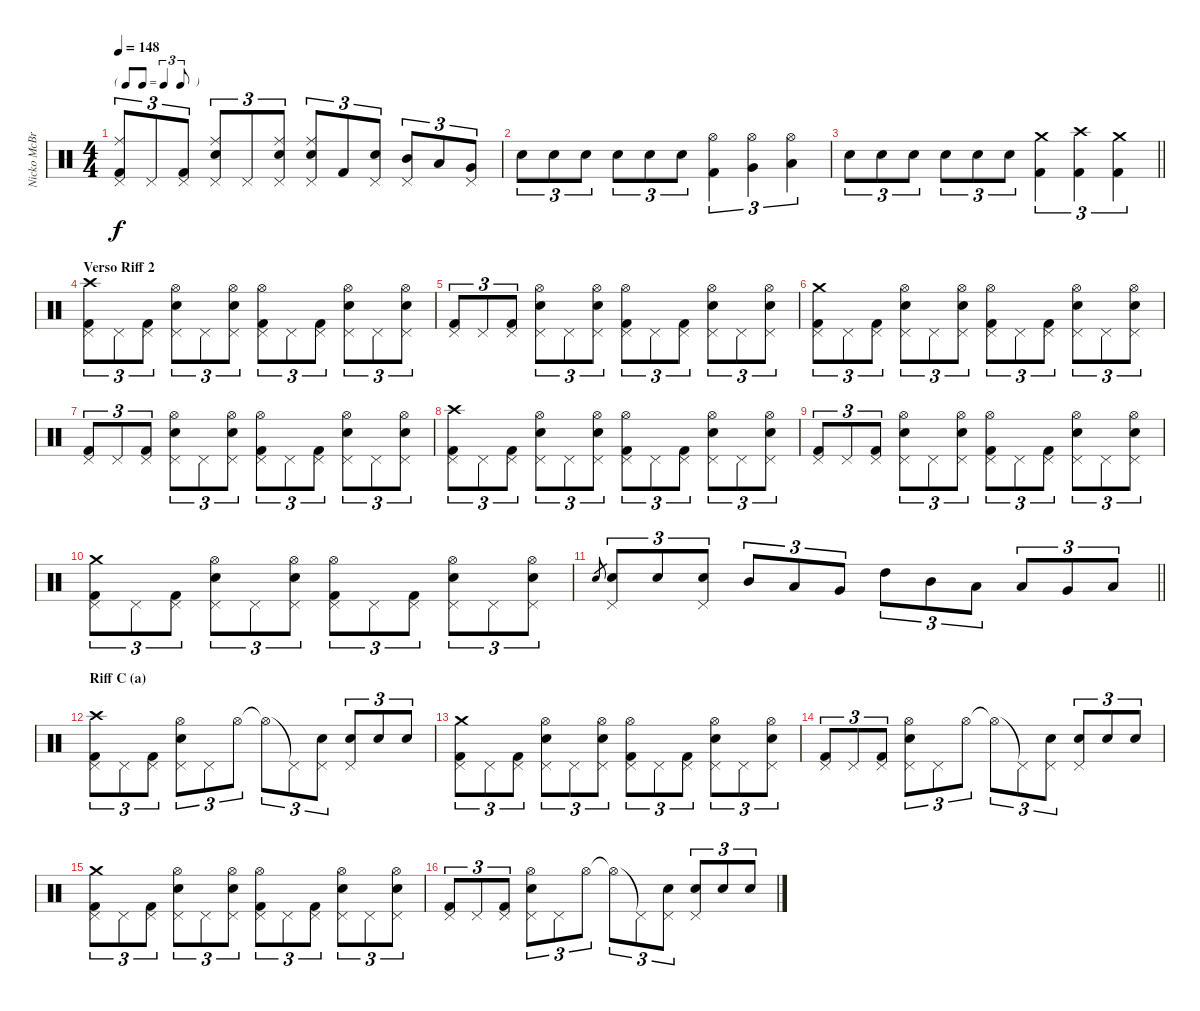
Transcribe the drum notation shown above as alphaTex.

\track ("Nicko McBrain" "Nicko McBr") {instrument percussion}
\staff {score}
\articulation defaults
\ts (4 4)
\tf triplet8th
\tempo 148
\clef neutral
\ks c
("Kick (hit) 2" "Pedal Hi-Hat (hit)" "Ride (middle)").8{tu (3 2) dy f} "Pedal Hi-Hat (hit)".8{tu (3 2)} ("Kick (hit) 2" "Pedal Hi-Hat (hit)").8{tu (3 2)} ("Snare (hit) 2" "Pedal Hi-Hat (hit)" "Ride (middle)").8{tu (3 2)} "Pedal Hi-Hat (hit)".8{tu (3 2)} ("Snare (hit) 2" "Pedal Hi-Hat (hit)" "Ride (middle)").8{tu (3 2)} ("Snare (hit) 2" "Pedal Hi-Hat (hit)" "Ride (middle)").8{tu (3 2)} "Kick (hit) 2".8{tu (3 2)} ("Snare (hit) 2" "Pedal Hi-Hat (hit)").8{tu (3 2)} ("Mid Tom (hit)" "Pedal Hi-Hat (hit)").8{tu (3 2)} "Low Tom (hit)".8{tu (3 2)} ("Very Low Tom (hit)" "Pedal Hi-Hat (hit)").8{tu (3 2)} |
"Snare (hit) 2".8{tu (3 2)} "Snare (hit) 2".8{tu (3 2)} "Snare (hit) 2".8{tu (3 2)} "Snare (hit) 2".8{tu (3 2)} "Snare (hit) 2".8{tu (3 2)} "Snare (hit) 2".8{tu (3 2)} ("Kick (hit) 2" "Hi-Hat (open)").4{tu (3 2)} ("Very Low Tom (hit)" "Hi-Hat (open)").4{tu (3 2)} ("Low Floor Tom (hit)" "Hi-Hat (open)").4{tu (3 2)} |
\barLineRight lightlight "Snare (hit) 2".8{tu (3 2)} "Snare (hit) 2".8{tu (3 2)} "Snare (hit) 2".8{tu (3 2)} "Snare (hit) 2".8{tu (3 2)} "Snare (hit) 2".8{tu (3 2)} "Snare (hit) 2".8{tu (3 2)}
("Kick (hit) 2" "Crash medium (hit)").4{tu (3 2)} ("Kick (hit) 2" "Crash high (hit)").4{tu (3 2)} ("Kick (hit) 2" "Crash medium (hit)").4{tu (3 2)} |
\section ("" "Verso Riff 2")
("Kick (hit) 2" "Pedal Hi-Hat (hit)" "Crash high (hit)").8{tu (3 2)} "Pedal Hi-Hat (hit)".8{tu (3 2)} ("Kick (hit) 2" "Pedal Hi-Hat (hit)").8{tu (3 2)} ("Snare (hit) 2" "Pedal Hi-Hat (hit)" "Hi-Hat (open)").8{tu (3 2)} "Pedal Hi-Hat (hit)".8{tu (3 2)} ("Snare (hit) 2" "Pedal Hi-Hat (hit)" "Hi-Hat (open)").8{tu (3 2)} ("Kick (hit) 2" "Pedal Hi-Hat (hit)" "Hi-Hat (open)").8{tu (3 2)} "Pedal Hi-Hat (hit)".8{tu (3 2)} ("Kick (hit) 2" "Pedal Hi-Hat (hit)").8{tu (3 2)} ("Snare (hit) 2" "Pedal Hi-Hat (hit)" "Hi-Hat (open)").8{tu (3 2)} "Pedal Hi-Hat (hit)".8{tu (3 2)} ("Snare (hit) 2" "Pedal Hi-Hat (hit)" "Hi-Hat (open)").8{tu (3 2)} |
("Kick (hit) 2" "Pedal Hi-Hat (hit)").8{tu (3 2)} "Pedal Hi-Hat (hit)".8{tu (3 2)} ("Kick (hit) 2" "Pedal Hi-Hat (hit)").8{tu (3 2)} ("Snare (hit) 2" "Pedal Hi-Hat (hit)" "Hi-Hat (open)").8{tu (3 2)} "Pedal Hi-Hat (hit)".8{tu (3 2)} ("Snare (hit) 2" "Pedal Hi-Hat (hit)" "Hi-Hat (open)").8{tu (3 2)} ("Kick (hit) 2" "Pedal Hi-Hat (hit)" "Hi-Hat (open)").8{tu (3 2)} "Pedal Hi-Hat (hit)".8{tu (3 2)} ("Kick (hit) 2" "Pedal Hi-Hat (hit)").8{tu (3 2)} ("Snare (hit) 2" "Pedal Hi-Hat (hit)" "Hi-Hat (open)").8{tu (3 2)} "Pedal Hi-Hat (hit)".8{tu (3 2)} ("Snare (hit) 2" "Pedal Hi-Hat (hit)" "Hi-Hat (open)").8{tu (3 2)} |
("Kick (hit) 2" "Pedal Hi-Hat (hit)" "Crash medium (hit)").8{tu (3 2)} "Pedal Hi-Hat (hit)".8{tu (3 2)} ("Kick (hit) 2" "Pedal Hi-Hat (hit)").8{tu (3 2)} ("Snare (hit) 2" "Pedal Hi-Hat (hit)" "Hi-Hat (open)").8{tu (3 2)} "Pedal Hi-Hat (hit)".8{tu (3 2)} ("Snare (hit) 2" "Pedal Hi-Hat (hit)" "Hi-Hat (open)").8{tu (3 2)} ("Kick (hit) 2" "Pedal Hi-Hat (hit)" "Hi-Hat (open)").8{tu (3 2)} "Pedal Hi-Hat (hit)".8{tu (3 2)} ("Kick (hit) 2" "Pedal Hi-Hat (hit)").8{tu (3 2)} ("Snare (hit) 2" "Pedal Hi-Hat (hit)" "Hi-Hat (open)").8{tu (3 2)} "Pedal Hi-Hat (hit)".8{tu (3 2)} ("Snare (hit) 2" "Pedal Hi-Hat (hit)" "Hi-Hat (open)").8{tu (3 2)} |
("Kick (hit) 2" "Pedal Hi-Hat (hit)").8{tu (3 2)} "Pedal Hi-Hat (hit)".8{tu (3 2)} ("Kick (hit) 2" "Pedal Hi-Hat (hit)").8{tu (3 2)} ("Snare (hit) 2" "Pedal Hi-Hat (hit)" "Hi-Hat (open)").8{tu (3 2)} "Pedal Hi-Hat (hit)".8{tu (3 2)} ("Snare (hit) 2" "Pedal Hi-Hat (hit)" "Hi-Hat (open)").8{tu (3 2)} ("Kick (hit) 2" "Pedal Hi-Hat (hit)" "Hi-Hat (open)").8{tu (3 2)} "Pedal Hi-Hat (hit)".8{tu (3 2)} ("Kick (hit) 2" "Pedal Hi-Hat (hit)").8{tu (3 2)} ("Snare (hit) 2" "Pedal Hi-Hat (hit)" "Hi-Hat (open)").8{tu (3 2)} "Pedal Hi-Hat (hit)".8{tu (3 2)} ("Snare (hit) 2" "Pedal Hi-Hat (hit)" "Hi-Hat (open)").8{tu (3 2)} |
("Kick (hit) 2" "Pedal Hi-Hat (hit)" "Crash high (hit)").8{tu (3 2)} "Pedal Hi-Hat (hit)".8{tu (3 2)} ("Kick (hit) 2" "Pedal Hi-Hat (hit)").8{tu (3 2)} ("Snare (hit) 2" "Pedal Hi-Hat (hit)" "Hi-Hat (open)").8{tu (3 2)} "Pedal Hi-Hat (hit)".8{tu (3 2)} ("Snare (hit) 2" "Pedal Hi-Hat (hit)" "Hi-Hat (open)").8{tu (3 2)} ("Kick (hit) 2" "Pedal Hi-Hat (hit)" "Hi-Hat (open)").8{tu (3 2)} "Pedal Hi-Hat (hit)".8{tu (3 2)} ("Kick (hit) 2" "Pedal Hi-Hat (hit)").8{tu (3 2)} ("Snare (hit) 2" "Pedal Hi-Hat (hit)" "Hi-Hat (open)").8{tu (3 2)} "Pedal Hi-Hat (hit)".8{tu (3 2)} ("Snare (hit) 2" "Pedal Hi-Hat (hit)" "Hi-Hat (open)").8{tu (3 2)} |
("Kick (hit) 2" "Pedal Hi-Hat (hit)").8{tu (3 2)} "Pedal Hi-Hat (hit)".8{tu (3 2)} ("Kick (hit) 2" "Pedal Hi-Hat (hit)").8{tu (3 2)} ("Snare (hit) 2" "Pedal Hi-Hat (hit)" "Hi-Hat (open)").8{tu (3 2)} "Pedal Hi-Hat (hit)".8{tu (3 2)} ("Snare (hit) 2" "Pedal Hi-Hat (hit)" "Hi-Hat (open)").8{tu (3 2)} ("Kick (hit) 2" "Pedal Hi-Hat (hit)" "Hi-Hat (open)").8{tu (3 2)} "Pedal Hi-Hat (hit)".8{tu (3 2)} ("Kick (hit) 2" "Pedal Hi-Hat (hit)").8{tu (3 2)} ("Snare (hit) 2" "Pedal Hi-Hat (hit)" "Hi-Hat (open)").8{tu (3 2)} "Pedal Hi-Hat (hit)".8{tu (3 2)} ("Snare (hit) 2" "Pedal Hi-Hat (hit)" "Hi-Hat (open)").8{tu (3 2)} |
("Kick (hit) 2" "Pedal Hi-Hat (hit)" "Crash medium (hit)").8{tu (3 2)} "Pedal Hi-Hat (hit)".8{tu (3 2)} ("Kick (hit) 2" "Pedal Hi-Hat (hit)").8{tu (3 2)} ("Snare (hit) 2" "Pedal Hi-Hat (hit)" "Hi-Hat (open)").8{tu (3 2)} "Pedal Hi-Hat (hit)".8{tu (3 2)} ("Snare (hit) 2" "Pedal Hi-Hat (hit)" "Hi-Hat (open)").8{tu (3 2)} ("Kick (hit) 2" "Pedal Hi-Hat (hit)" "Hi-Hat (open)").8{tu (3 2)} "Pedal Hi-Hat (hit)".8{tu (3 2)} ("Kick (hit) 2" "Pedal Hi-Hat (hit)").8{tu (3 2)} ("Snare (hit) 2" "Pedal Hi-Hat (hit)" "Hi-Hat (open)").8{tu (3 2)} "Pedal Hi-Hat (hit)".8{tu (3 2)} ("Snare (hit) 2" "Pedal Hi-Hat (hit)" "Hi-Hat (open)").8{tu (3 2)} |
\barLineRight lightlight "Snare (hit) 2".8{gr}
("Snare (hit) 2" "Pedal Hi-Hat (hit)").8{tu (3 2)} "Snare (hit) 2".8{tu (3 2)} ("Snare (hit) 2" "Pedal Hi-Hat (hit)").8{tu (3 2)} "Mid Tom (hit)".8{tu (3 2)} "Low Tom (hit)".8{tu (3 2)} "Very Low Tom (hit)".8{tu (3 2)} "High Tom (hit)".8{tu (3 2)} "Mid Tom (hit)".8{tu (3 2)} "Low Tom (hit)".8{tu (3 2)} "Low Tom (hit)".8{tu (3 2)} "Very Low Tom (hit)".8{tu (3 2)} "Low Floor Tom (hit)".8{tu (3 2)} |
\section ("" "Riff C (a)")
("Kick (hit) 2" "Pedal Hi-Hat (hit)" "Crash high (hit)").8{tu (3 2)} "Pedal Hi-Hat (hit)".8{tu (3 2)} ("Kick (hit) 2" "Pedal Hi-Hat (hit)").8{tu (3 2)} ("Snare (hit) 2" "Pedal Hi-Hat (hit)" "Hi-Hat (open)").8{tu (3 2)} "Pedal Hi-Hat (hit)".8{tu (3 2)} "Hi-Hat (open)".8{tu (3 2)} "Hi-Hat (open)"{t}.8{tu (3 2)} "Pedal Hi-Hat (hit)"{t}.8{tu (3 2)} ("Snare (hit) 2" "Pedal Hi-Hat (hit)").8{tu (3 2)} ("Snare (hit) 2" "Pedal Hi-Hat (hit)").8{tu (3 2)} "Snare (hit) 2".8{tu (3 2)} "Snare (hit) 2".8{tu (3 2)} |
("Kick (hit) 2" "Pedal Hi-Hat (hit)" "Crash medium (hit)").8{tu (3 2)} "Pedal Hi-Hat (hit)".8{tu (3 2)} ("Kick (hit) 2" "Pedal Hi-Hat (hit)").8{tu (3 2)} ("Snare (hit) 2" "Pedal Hi-Hat (hit)" "Hi-Hat (open)").8{tu (3 2)} "Pedal Hi-Hat (hit)".8{tu (3 2)} ("Snare (hit) 2" "Pedal Hi-Hat (hit)" "Hi-Hat (open)").8{tu (3 2)} ("Kick (hit) 2" "Pedal Hi-Hat (hit)" "Hi-Hat (open)").8{tu (3 2)} "Pedal Hi-Hat (hit)".8{tu (3 2)} ("Kick (hit) 2" "Pedal Hi-Hat (hit)").8{tu (3 2)} ("Snare (hit) 2" "Pedal Hi-Hat (hit)" "Hi-Hat (open)").8{tu (3 2)} "Pedal Hi-Hat (hit)".8{tu (3 2)} ("Snare (hit) 2" "Pedal Hi-Hat (hit)" "Hi-Hat (open)").8{tu (3 2)} |
("Kick (hit) 2" "Pedal Hi-Hat (hit)").8{tu (3 2)} "Pedal Hi-Hat (hit)".8{tu (3 2)} ("Kick (hit) 2" "Pedal Hi-Hat (hit)").8{tu (3 2)} ("Snare (hit) 2" "Pedal Hi-Hat (hit)" "Hi-Hat (open)").8{tu (3 2)} "Pedal Hi-Hat (hit)".8{tu (3 2)} "Hi-Hat (open)".8{tu (3 2)} "Hi-Hat (open)"{t}.8{tu (3 2)} "Pedal Hi-Hat (hit)"{t}.8{tu (3 2)} ("Snare (hit) 2" "Pedal Hi-Hat (hit)").8{tu (3 2)} ("Snare (hit) 2" "Pedal Hi-Hat (hit)").8{tu (3 2)} "Snare (hit) 2".8{tu (3 2)} "Snare (hit) 2".8{tu (3 2)} |
("Kick (hit) 2" "Pedal Hi-Hat (hit)" "Crash medium (hit)").8{tu (3 2)} "Pedal Hi-Hat (hit)".8{tu (3 2)} ("Kick (hit) 2" "Pedal Hi-Hat (hit)").8{tu (3 2)} ("Snare (hit) 2" "Pedal Hi-Hat (hit)" "Hi-Hat (open)").8{tu (3 2)} "Pedal Hi-Hat (hit)".8{tu (3 2)} ("Snare (hit) 2" "Pedal Hi-Hat (hit)" "Hi-Hat (open)").8{tu (3 2)} ("Kick (hit) 2" "Pedal Hi-Hat (hit)" "Hi-Hat (open)").8{tu (3 2)} "Pedal Hi-Hat (hit)".8{tu (3 2)} ("Kick (hit) 2" "Pedal Hi-Hat (hit)").8{tu (3 2)} ("Snare (hit) 2" "Pedal Hi-Hat (hit)" "Hi-Hat (open)").8{tu (3 2)} "Pedal Hi-Hat (hit)".8{tu (3 2)} ("Snare (hit) 2" "Pedal Hi-Hat (hit)" "Hi-Hat (open)").8{tu (3 2)} |
("Kick (hit) 2" "Pedal Hi-Hat (hit)").8{tu (3 2)} "Pedal Hi-Hat (hit)".8{tu (3 2)} ("Kick (hit) 2" "Pedal Hi-Hat (hit)").8{tu (3 2)} ("Snare (hit) 2" "Pedal Hi-Hat (hit)" "Hi-Hat (open)").8{tu (3 2)} "Pedal Hi-Hat (hit)".8{tu (3 2)} "Hi-Hat (open)".8{tu (3 2)} "Hi-Hat (open)"{t}.8{tu (3 2)} "Pedal Hi-Hat (hit)"{t}.8{tu (3 2)} ("Snare (hit) 2" "Pedal Hi-Hat (hit)").8{tu (3 2)} ("Snare (hit) 2" "Pedal Hi-Hat (hit)").8{tu (3 2)} "Snare (hit) 2".8{tu (3 2)} "Snare (hit) 2".8{tu (3 2)}
